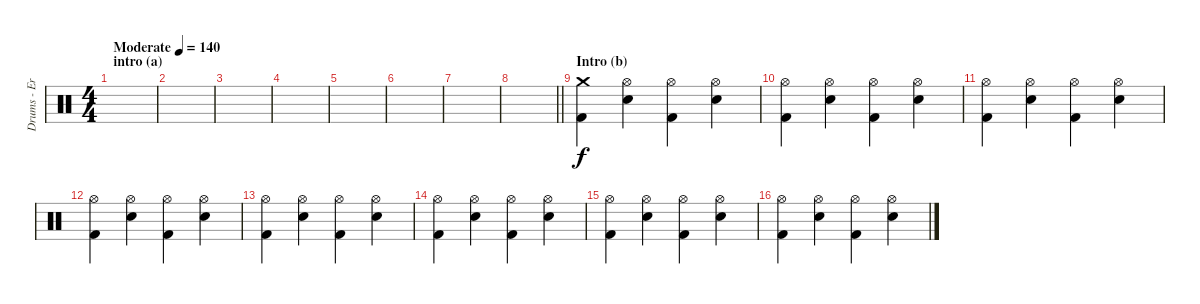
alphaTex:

\track ("Drums - Eric Young" "Drums - Er") {instrument percussion}
\staff {score}
\articulation defaults
\ts (4 4)
\section ("" "intro (a)")
\tempo (140 "Moderate")
\clef neutral
\ks c
|
|
|
|
|
|
|
\barLineRight lightlight
|
\section ("" "Intro (b)")
("Crash medium (hit)" "Kick (hit) 2").4 ("Hi-Hat (open)" "Electric Snare (hit)").4 ("Hi-Hat (open)" "Kick (hit) 2").4 ("Hi-Hat (open)" "Electric Snare (hit)").4 |
("Hi-Hat (open)" "Kick (hit) 2").4 ("Hi-Hat (open)" "Electric Snare (hit)").4 ("Hi-Hat (open)" "Kick (hit) 2").4 ("Hi-Hat (open)" "Electric Snare (hit)").4 |
("Hi-Hat (open)" "Kick (hit) 2").4 ("Hi-Hat (open)" "Electric Snare (hit)").4 ("Hi-Hat (open)" "Kick (hit) 2").4 ("Hi-Hat (open)" "Electric Snare (hit)").4 |
("Hi-Hat (open)" "Kick (hit) 2").4 ("Hi-Hat (open)" "Electric Snare (hit)").4 ("Hi-Hat (open)" "Kick (hit) 2").4 ("Hi-Hat (open)" "Electric Snare (hit)").4 |
("Hi-Hat (open)" "Kick (hit) 2").4 ("Hi-Hat (open)" "Electric Snare (hit)").4 ("Hi-Hat (open)" "Kick (hit) 2").4 ("Hi-Hat (open)" "Electric Snare (hit)").4 |
("Hi-Hat (open)" "Kick (hit) 2").4 ("Hi-Hat (open)" "Electric Snare (hit)").4 ("Hi-Hat (open)" "Kick (hit) 2").4 ("Hi-Hat (open)" "Electric Snare (hit)").4 |
("Hi-Hat (open)" "Kick (hit) 2").4 ("Hi-Hat (open)" "Electric Snare (hit)").4 ("Hi-Hat (open)" "Kick (hit) 2").4 ("Hi-Hat (open)" "Electric Snare (hit)").4 |
("Hi-Hat (open)" "Kick (hit) 2").4 ("Hi-Hat (open)" "Electric Snare (hit)").4 ("Hi-Hat (open)" "Kick (hit) 2").4 ("Hi-Hat (open)" "Electric Snare (hit)").4
